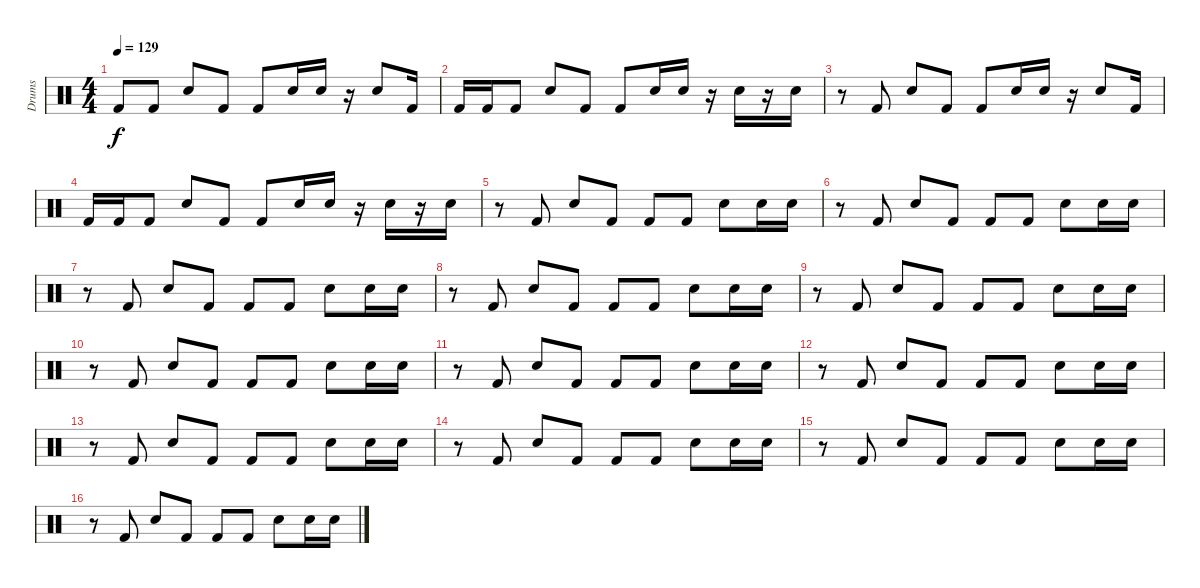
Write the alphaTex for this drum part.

\track ("Drums" "Drums") {instrument percussion}
\staff {score}
\articulation defaults
\ts (4 4)
\tempo 129
\clef neutral
\ks c "Kick (hit) 2".8{dy f} "Kick (hit) 2".8 "Snare (hit) 2".8 "Kick (hit) 2".8 "Kick (hit) 2".8 "Snare (hit) 2".16 "Snare (hit) 2".16
r.16 "Snare (hit) 2".8 "Kick (hit) 2".16 |
"Kick (hit) 2".16 "Kick (hit) 2".16 "Kick (hit) 2".8 "Snare (hit) 2".8 "Kick (hit) 2".8 "Kick (hit) 2".8 "Snare (hit) 2".16 "Snare (hit) 2".16 r.16 "Snare (hit) 2".16 r.16 "Snare (hit) 2".16 |
r.8 "Kick (hit) 2".8 "Snare (hit) 2".8 "Kick (hit) 2".8 "Kick (hit) 2".8 "Snare (hit) 2".16 "Snare (hit) 2".16 r.16 "Snare (hit) 2".8 "Kick (hit) 2".16 |
"Kick (hit) 2".16 "Kick (hit) 2".16 "Kick (hit) 2".8 "Snare (hit) 2".8 "Kick (hit) 2".8 "Kick (hit) 2".8 "Snare (hit) 2".16 "Snare (hit) 2".16 r.16 "Snare (hit) 2".16 r.16 "Snare (hit) 2".16 |
r.8 "Kick (hit) 2".8 "Snare (hit) 2".8 "Kick (hit) 2".8 "Kick (hit) 2".8 "Kick (hit) 2".8 "Snare (hit) 2".8 "Snare (hit) 2".16 "Snare (hit) 2".16 |
r.8 "Kick (hit) 2".8 "Snare (hit) 2".8 "Kick (hit) 2".8 "Kick (hit) 2".8 "Kick (hit) 2".8 "Snare (hit) 2".8 "Snare (hit) 2".16 "Snare (hit) 2".16 |
r.8 "Kick (hit) 2".8 "Snare (hit) 2".8 "Kick (hit) 2".8 "Kick (hit) 2".8 "Kick (hit) 2".8 "Snare (hit) 2".8 "Snare (hit) 2".16 "Snare (hit) 2".16 |
r.8 "Kick (hit) 2".8 "Snare (hit) 2".8 "Kick (hit) 2".8 "Kick (hit) 2".8 "Kick (hit) 2".8 "Snare (hit) 2".8 "Snare (hit) 2".16 "Snare (hit) 2".16 |
r.8 "Kick (hit) 2".8 "Snare (hit) 2".8 "Kick (hit) 2".8 "Kick (hit) 2".8 "Kick (hit) 2".8 "Snare (hit) 2".8 "Snare (hit) 2".16 "Snare (hit) 2".16 |
r.8 "Kick (hit) 2".8 "Snare (hit) 2".8 "Kick (hit) 2".8 "Kick (hit) 2".8 "Kick (hit) 2".8 "Snare (hit) 2".8 "Snare (hit) 2".16 "Snare (hit) 2".16 |
r.8 "Kick (hit) 2".8 "Snare (hit) 2".8 "Kick (hit) 2".8 "Kick (hit) 2".8 "Kick (hit) 2".8 "Snare (hit) 2".8 "Snare (hit) 2".16 "Snare (hit) 2".16 |
r.8 "Kick (hit) 2".8 "Snare (hit) 2".8 "Kick (hit) 2".8 "Kick (hit) 2".8 "Kick (hit) 2".8 "Snare (hit) 2".8 "Snare (hit) 2".16 "Snare (hit) 2".16 |
r.8 "Kick (hit) 2".8 "Snare (hit) 2".8 "Kick (hit) 2".8 "Kick (hit) 2".8 "Kick (hit) 2".8 "Snare (hit) 2".8 "Snare (hit) 2".16 "Snare (hit) 2".16 |
r.8 "Kick (hit) 2".8 "Snare (hit) 2".8 "Kick (hit) 2".8 "Kick (hit) 2".8 "Kick (hit) 2".8 "Snare (hit) 2".8 "Snare (hit) 2".16 "Snare (hit) 2".16 |
r.8 "Kick (hit) 2".8 "Snare (hit) 2".8 "Kick (hit) 2".8 "Kick (hit) 2".8 "Kick (hit) 2".8 "Snare (hit) 2".8 "Snare (hit) 2".16 "Snare (hit) 2".16 |
r.8 "Kick (hit) 2".8 "Snare (hit) 2".8 "Kick (hit) 2".8 "Kick (hit) 2".8 "Kick (hit) 2".8 "Snare (hit) 2".8 "Snare (hit) 2".16 "Snare (hit) 2".16
